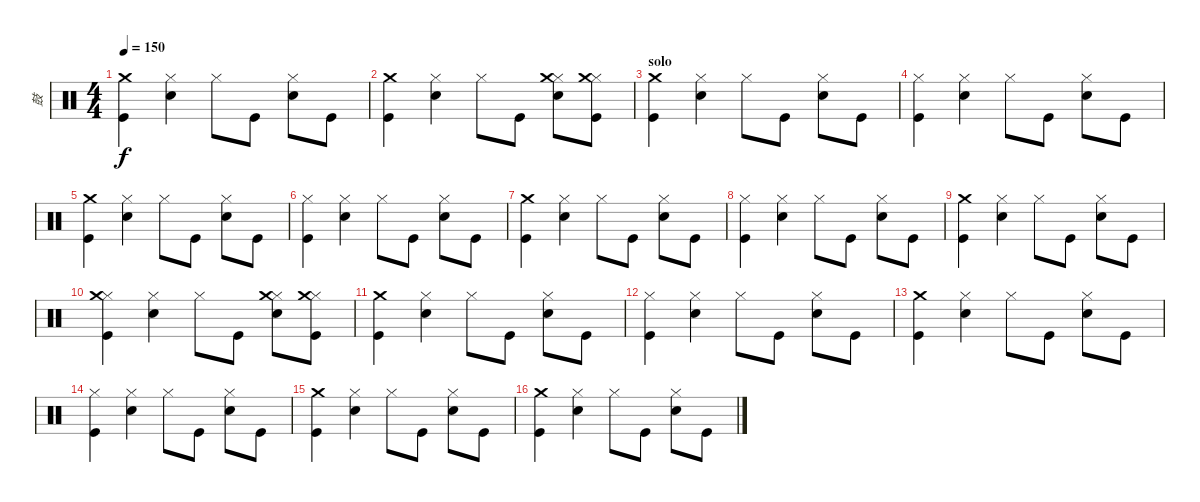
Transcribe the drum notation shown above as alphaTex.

\track ("鼓" "鼓") {instrument percussion}
\staff {score}
\articulation defaults
\ts (4 4)
\tempo 150
\clef neutral
\ks c
("Kick (hit)" "Crash medium (hit)").4{dy f} ("Snare (hit) 2" "Hi-Hat (closed)").4 "Hi-Hat (closed)".8 "Kick (hit)".8 ("Snare (hit) 2" "Hi-Hat (closed)").8 "Kick (hit)".8 |
("Kick (hit)" "Crash medium (hit)").4 ("Snare (hit) 2" "Hi-Hat (closed)").4 "Hi-Hat (closed)".8 "Kick (hit)".8 ("Snare (hit) 2" "Hi-Hat (closed)" "Crash medium (hit)").8 ("Kick (hit)" "Hi-Hat (closed)" "Crash medium (hit)").8 |
\section ("" "solo")
("Kick (hit)" "Crash medium (hit)").4 ("Snare (hit) 2" "Hi-Hat (closed)").4 "Hi-Hat (closed)".8 "Kick (hit)".8 ("Snare (hit) 2" "Hi-Hat (closed)").8 "Kick (hit)".8 |
("Kick (hit)" "Hi-Hat (closed)").4 ("Snare (hit) 2" "Hi-Hat (closed)").4 "Hi-Hat (closed)".8 "Kick (hit)".8 ("Snare (hit) 2" "Hi-Hat (closed)").8 "Kick (hit)".8 |
("Kick (hit)" "Crash medium (hit)").4 ("Snare (hit) 2" "Hi-Hat (closed)").4 "Hi-Hat (closed)".8 "Kick (hit)".8 ("Snare (hit) 2" "Hi-Hat (closed)").8 "Kick (hit)".8 |
("Kick (hit)" "Hi-Hat (closed)").4 ("Snare (hit) 2" "Hi-Hat (closed)").4 "Hi-Hat (closed)".8 "Kick (hit)".8 ("Snare (hit) 2" "Hi-Hat (closed)").8 "Kick (hit)".8 |
("Kick (hit)" "Crash medium (hit)").4 ("Snare (hit) 2" "Hi-Hat (closed)").4 "Hi-Hat (closed)".8 "Kick (hit)".8 ("Snare (hit) 2" "Hi-Hat (closed)").8 "Kick (hit)".8 |
("Kick (hit)" "Hi-Hat (closed)").4 ("Snare (hit) 2" "Hi-Hat (closed)").4 "Hi-Hat (closed)".8 "Kick (hit)".8 ("Snare (hit) 2" "Hi-Hat (closed)").8 "Kick (hit)".8 |
("Kick (hit)" "Crash medium (hit)").4 ("Snare (hit) 2" "Hi-Hat (closed)").4 "Hi-Hat (closed)".8 "Kick (hit)".8 ("Snare (hit) 2" "Hi-Hat (closed)").8 "Kick (hit)".8 |
("Kick (hit)" "Hi-Hat (closed)" "Crash medium (hit)").4 ("Snare (hit) 2" "Hi-Hat (closed)").4 "Hi-Hat (closed)".8 "Kick (hit)".8 ("Snare (hit) 2" "Hi-Hat (closed)" "Crash medium (hit)").8 ("Kick (hit)" "Hi-Hat (closed)" "Crash medium (hit)").8 |
("Kick (hit)" "Crash medium (hit)").4 ("Snare (hit) 2" "Hi-Hat (closed)").4 "Hi-Hat (closed)".8 "Kick (hit)".8 ("Snare (hit) 2" "Hi-Hat (closed)").8 "Kick (hit)".8 |
("Kick (hit)" "Hi-Hat (closed)").4 ("Snare (hit) 2" "Hi-Hat (closed)").4 "Hi-Hat (closed)".8 "Kick (hit)".8 ("Snare (hit) 2" "Hi-Hat (closed)").8 "Kick (hit)".8 |
("Kick (hit)" "Crash medium (hit)").4 ("Snare (hit) 2" "Hi-Hat (closed)").4 "Hi-Hat (closed)".8 "Kick (hit)".8 ("Snare (hit) 2" "Hi-Hat (closed)").8 "Kick (hit)".8 |
("Kick (hit)" "Hi-Hat (closed)").4 ("Snare (hit) 2" "Hi-Hat (closed)").4 "Hi-Hat (closed)".8 "Kick (hit)".8 ("Snare (hit) 2" "Hi-Hat (closed)").8 "Kick (hit)".8 |
("Kick (hit)" "Crash medium (hit)").4 ("Snare (hit) 2" "Hi-Hat (closed)").4 "Hi-Hat (closed)".8 "Kick (hit)".8 ("Snare (hit) 2" "Hi-Hat (closed)").8 "Kick (hit)".8 |
("Kick (hit)" "Crash medium (hit)").4 ("Snare (hit) 2" "Hi-Hat (closed)").4 "Hi-Hat (closed)".8 "Kick (hit)".8 ("Snare (hit) 2" "Hi-Hat (closed)").8 "Kick (hit)".8
